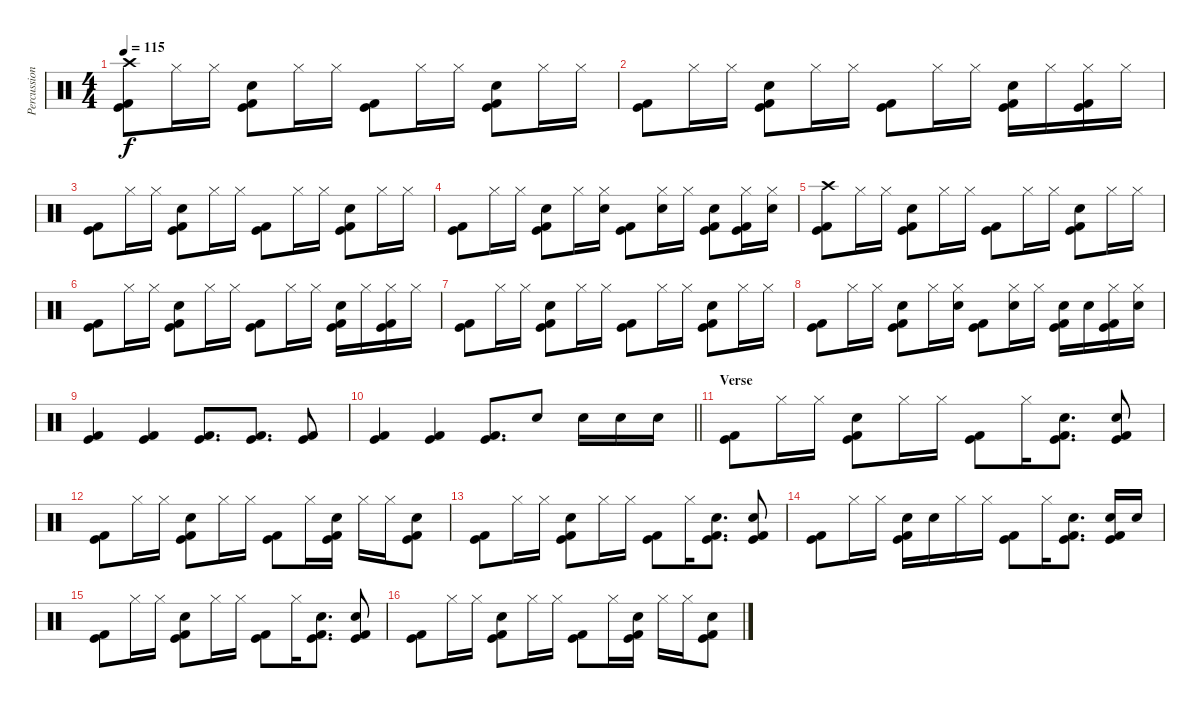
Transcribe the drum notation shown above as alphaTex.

\track ("Percussion" "Percussion") {instrument percussion}
\staff {score}
\articulation defaults
\ts (4 4)
\tempo 115
\clef neutral
\ks c
("Crash high (hit)" "Kick (hit)" "Kick (hit) 2").8{dy f} "Hi-Hat (closed)".16 "Hi-Hat (closed)".16 ("Electric Snare (hit)" "Kick (hit)" "Kick (hit) 2").8 "Hi-Hat (closed)".16 "Hi-Hat (closed)".16 ("Kick (hit)" "Kick (hit) 2").8 "Hi-Hat (closed)".16 "Hi-Hat (closed)".16 ("Electric Snare (hit)" "Kick (hit)" "Kick (hit) 2").8 "Hi-Hat (closed)".16 "Hi-Hat (closed)".16 |
("Kick (hit)" "Kick (hit) 2").8 "Hi-Hat (closed)".16 "Hi-Hat (closed)".16 ("Electric Snare (hit)" "Kick (hit)" "Kick (hit) 2").8 "Hi-Hat (closed)".16 "Hi-Hat (closed)".16 ("Kick (hit)" "Kick (hit) 2").8 "Hi-Hat (closed)".16 "Hi-Hat (closed)".16 ("Electric Snare (hit)" "Kick (hit)" "Kick (hit) 2").16 "Hi-Hat (closed)".16 ("Hi-Hat (closed)" "Kick (hit)" "Kick (hit) 2").16 "Hi-Hat (closed)".16 |
("Kick (hit)" "Kick (hit) 2").8 "Hi-Hat (closed)".16 "Hi-Hat (closed)".16 ("Electric Snare (hit)" "Kick (hit)" "Kick (hit) 2").8 "Hi-Hat (closed)".16 "Hi-Hat (closed)".16 ("Kick (hit)" "Kick (hit) 2").8 "Hi-Hat (closed)".16 "Hi-Hat (closed)".16 ("Electric Snare (hit)" "Kick (hit)" "Kick (hit) 2").8 "Hi-Hat (closed)".16 "Hi-Hat (closed)".16 |
("Kick (hit)" "Kick (hit) 2").8 "Hi-Hat (closed)".16 "Hi-Hat (closed)".16 ("Electric Snare (hit)" "Kick (hit)" "Kick (hit) 2").8 "Hi-Hat (closed)".16 ("Hi-Hat (closed)" "Electric Snare (hit)").16 ("Kick (hit)" "Kick (hit) 2").8 ("Hi-Hat (closed)" "Electric Snare (hit)").16 "Hi-Hat (closed)".16 ("Electric Snare (hit)" "Kick (hit)" "Kick (hit) 2").8 ("Hi-Hat (closed)" "Kick (hit)" "Kick (hit) 2").16 ("Hi-Hat (closed)" "Electric Snare (hit)").16 |
("Crash high (hit)" "Kick (hit)" "Kick (hit) 2").8 "Hi-Hat (closed)".16 "Hi-Hat (closed)".16 ("Electric Snare (hit)" "Kick (hit)" "Kick (hit) 2").8 "Hi-Hat (closed)".16 "Hi-Hat (closed)".16 ("Kick (hit)" "Kick (hit) 2").8 "Hi-Hat (closed)".16 "Hi-Hat (closed)".16 ("Electric Snare (hit)" "Kick (hit)" "Kick (hit) 2").8 "Hi-Hat (closed)".16 "Hi-Hat (closed)".16 |
("Kick (hit)" "Kick (hit) 2").8 "Hi-Hat (closed)".16 "Hi-Hat (closed)".16 ("Electric Snare (hit)" "Kick (hit)" "Kick (hit) 2").8 "Hi-Hat (closed)".16 "Hi-Hat (closed)".16 ("Kick (hit)" "Kick (hit) 2").8 "Hi-Hat (closed)".16 "Hi-Hat (closed)".16 ("Electric Snare (hit)" "Kick (hit)" "Kick (hit) 2").16 "Hi-Hat (closed)".16 ("Hi-Hat (closed)" "Kick (hit)" "Kick (hit) 2").16 "Hi-Hat (closed)".16 |
("Kick (hit)" "Kick (hit) 2").8 "Hi-Hat (closed)".16 "Hi-Hat (closed)".16 ("Electric Snare (hit)" "Kick (hit)" "Kick (hit) 2").8 "Hi-Hat (closed)".16 "Hi-Hat (closed)".16 ("Kick (hit)" "Kick (hit) 2").8 "Hi-Hat (closed)".16 "Hi-Hat (closed)".16 ("Electric Snare (hit)" "Kick (hit)" "Kick (hit) 2").8 "Hi-Hat (closed)".16 "Hi-Hat (closed)".16 |
("Kick (hit)" "Kick (hit) 2").8 "Hi-Hat (closed)".16 "Hi-Hat (closed)".16 ("Electric Snare (hit)" "Kick (hit)" "Kick (hit) 2").8 "Hi-Hat (closed)".16 ("Hi-Hat (closed)" "Electric Snare (hit)").16 ("Kick (hit)" "Kick (hit) 2").8 ("Hi-Hat (closed)" "Electric Snare (hit)").16 "Hi-Hat (closed)".16 ("Electric Snare (hit)" "Kick (hit)" "Kick (hit) 2").16 "Electric Snare (hit)".16 ("Hi-Hat (closed)" "Kick (hit)" "Kick (hit) 2").16 ("Hi-Hat (closed)" "Electric Snare (hit)").16 |
("Kick (hit)" "Kick (hit) 2").4 ("Kick (hit)" "Kick (hit) 2").4 ("Kick (hit)" "Kick (hit) 2").8{d} ("Kick (hit)" "Kick (hit) 2").8{d} ("Kick (hit)" "Kick (hit) 2").8 |
\barLineRight lightlight
("Kick (hit)" "Kick (hit) 2").4 ("Kick (hit)" "Kick (hit) 2").4 ("Kick (hit)" "Kick (hit) 2").8{d} "Electric Snare (hit)".8 "Electric Snare (hit)".16 "Electric Snare (hit)".16 "Electric Snare (hit)".16 |
\section ("" "Verse")
("Kick (hit)" "Kick (hit) 2").8 "Hi-Hat (closed)".16 "Hi-Hat (closed)".16 ("Electric Snare (hit)" "Kick (hit)" "Kick (hit) 2").8 "Hi-Hat (closed)".16 "Hi-Hat (closed)".16 ("Kick (hit)" "Kick (hit) 2").8 "Hi-Hat (closed)".16 ("Electric Snare (hit)" "Kick (hit)" "Kick (hit) 2").8{d} ("Electric Snare (hit)" "Kick (hit)" "Kick (hit) 2").8 |
("Kick (hit)" "Kick (hit) 2").8 "Hi-Hat (closed)".16 "Hi-Hat (closed)".16 ("Electric Snare (hit)" "Kick (hit)" "Kick (hit) 2").8 "Hi-Hat (closed)".16 "Hi-Hat (closed)".16 ("Kick (hit)" "Kick (hit) 2").8 "Hi-Hat (closed)".16 ("Electric Snare (hit)" "Kick (hit)" "Kick (hit) 2").16 "Hi-Hat (closed)".16 "Hi-Hat (closed)".16 ("Electric Snare (hit)" "Kick (hit)" "Kick (hit) 2").8 |
("Kick (hit)" "Kick (hit) 2").8 "Hi-Hat (closed)".16 "Hi-Hat (closed)".16 ("Electric Snare (hit)" "Kick (hit)" "Kick (hit) 2").8 "Hi-Hat (closed)".16 "Hi-Hat (closed)".16 ("Kick (hit)" "Kick (hit) 2").8 "Hi-Hat (closed)".16 ("Electric Snare (hit)" "Kick (hit)" "Kick (hit) 2").8{d} ("Electric Snare (hit)" "Kick (hit)" "Kick (hit) 2").8 |
("Kick (hit)" "Kick (hit) 2").8 "Hi-Hat (closed)".16 "Hi-Hat (closed)".16 ("Electric Snare (hit)" "Kick (hit)" "Kick (hit) 2").16 "Electric Snare (hit)".16 "Hi-Hat (closed)".16 "Hi-Hat (closed)".16 ("Kick (hit)" "Kick (hit) 2").8 "Hi-Hat (closed)".16 ("Electric Snare (hit)" "Kick (hit)" "Kick (hit) 2").8{d} ("Electric Snare (hit)" "Kick (hit)" "Kick (hit) 2").16 "Electric Snare (hit)".16 |
("Kick (hit)" "Kick (hit) 2").8 "Hi-Hat (closed)".16 "Hi-Hat (closed)".16 ("Electric Snare (hit)" "Kick (hit)" "Kick (hit) 2").8 "Hi-Hat (closed)".16 "Hi-Hat (closed)".16 ("Kick (hit)" "Kick (hit) 2").8 "Hi-Hat (closed)".16 ("Electric Snare (hit)" "Kick (hit)" "Kick (hit) 2").8{d} ("Electric Snare (hit)" "Kick (hit)" "Kick (hit) 2").8 |
("Kick (hit)" "Kick (hit) 2").8 "Hi-Hat (closed)".16 "Hi-Hat (closed)".16 ("Electric Snare (hit)" "Kick (hit)" "Kick (hit) 2").8 "Hi-Hat (closed)".16 "Hi-Hat (closed)".16 ("Kick (hit)" "Kick (hit) 2").8 "Hi-Hat (closed)".16 ("Electric Snare (hit)" "Kick (hit)" "Kick (hit) 2").16 "Hi-Hat (closed)".16 "Hi-Hat (closed)".16 ("Electric Snare (hit)" "Kick (hit)" "Kick (hit) 2").8
